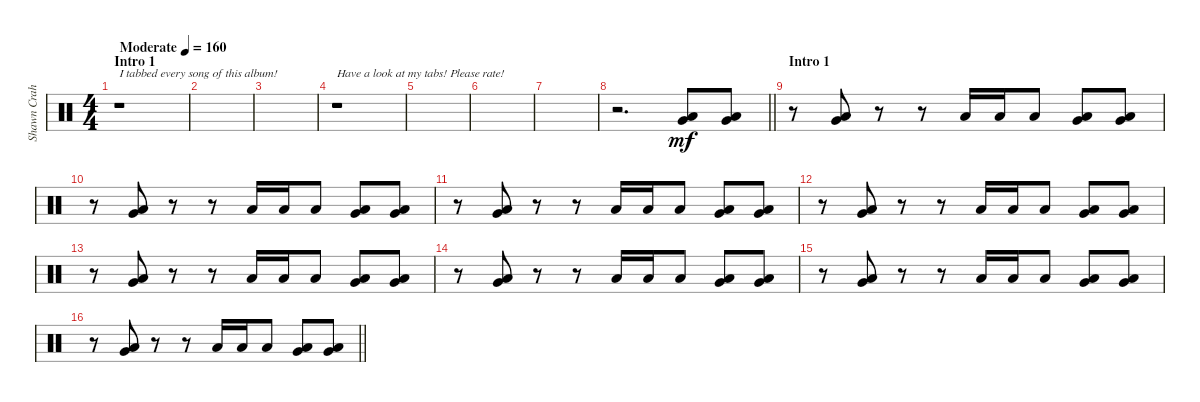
\track ("Shawn Crahan" "Shawn Crah") {instrument percussion}
\staff {score}
\articulation defaults
\ts (4 4)
\section ("" "Intro 1")
\tempo (160 "Moderate")
\clef neutral
\ks c
r.1{txt "I tabbed every song of this album! " dy mf} |
|
|
r.1{txt "Have a look at my tabs! Please rate!"} |
|
|
|
\barLineRight lightlight
r.2{d} ("Very Low Tom (hit)" "Low Floor Tom (hit)").8 ("Very Low Tom (hit)" "Low Floor Tom (hit)").8 |
\section ("" "Intro 1")
r.8 ("Very Low Tom (hit)" "Low Floor Tom (hit)").8 r.8 r.8 "Low Floor Tom (hit)".16 "Low Floor Tom (hit)".16 "Low Floor Tom (hit)".8 ("Very Low Tom (hit)" "Low Floor Tom (hit)").8 ("Very Low Tom (hit)" "Low Floor Tom (hit)").8 |
r.8 ("Very Low Tom (hit)" "Low Floor Tom (hit)").8 r.8 r.8 "Low Floor Tom (hit)".16 "Low Floor Tom (hit)".16 "Low Floor Tom (hit)".8 ("Very Low Tom (hit)" "Low Floor Tom (hit)").8 ("Very Low Tom (hit)" "Low Floor Tom (hit)").8 |
r.8 ("Very Low Tom (hit)" "Low Floor Tom (hit)").8 r.8 r.8 "Low Floor Tom (hit)".16 "Low Floor Tom (hit)".16 "Low Floor Tom (hit)".8 ("Very Low Tom (hit)" "Low Floor Tom (hit)").8 ("Very Low Tom (hit)" "Low Floor Tom (hit)").8 |
r.8 ("Very Low Tom (hit)" "Low Floor Tom (hit)").8 r.8 r.8 "Low Floor Tom (hit)".16 "Low Floor Tom (hit)".16 "Low Floor Tom (hit)".8 ("Very Low Tom (hit)" "Low Floor Tom (hit)").8 ("Very Low Tom (hit)" "Low Floor Tom (hit)").8 |
r.8 ("Very Low Tom (hit)" "Low Floor Tom (hit)").8 r.8 r.8 "Low Floor Tom (hit)".16 "Low Floor Tom (hit)".16 "Low Floor Tom (hit)".8 ("Very Low Tom (hit)" "Low Floor Tom (hit)").8 ("Very Low Tom (hit)" "Low Floor Tom (hit)").8 |
r.8 ("Very Low Tom (hit)" "Low Floor Tom (hit)").8 r.8 r.8 "Low Floor Tom (hit)".16 "Low Floor Tom (hit)".16 "Low Floor Tom (hit)".8 ("Very Low Tom (hit)" "Low Floor Tom (hit)").8 ("Very Low Tom (hit)" "Low Floor Tom (hit)").8 |
r.8 ("Very Low Tom (hit)" "Low Floor Tom (hit)").8 r.8 r.8 "Low Floor Tom (hit)".16 "Low Floor Tom (hit)".16 "Low Floor Tom (hit)".8 ("Very Low Tom (hit)" "Low Floor Tom (hit)").8 ("Very Low Tom (hit)" "Low Floor Tom (hit)").8 |
\barLineRight lightlight
r.8 ("Very Low Tom (hit)" "Low Floor Tom (hit)").8 r.8 r.8 "Low Floor Tom (hit)".16 "Low Floor Tom (hit)".16 "Low Floor Tom (hit)".8 ("Very Low Tom (hit)" "Low Floor Tom (hit)").8 ("Very Low Tom (hit)" "Low Floor Tom (hit)").8
